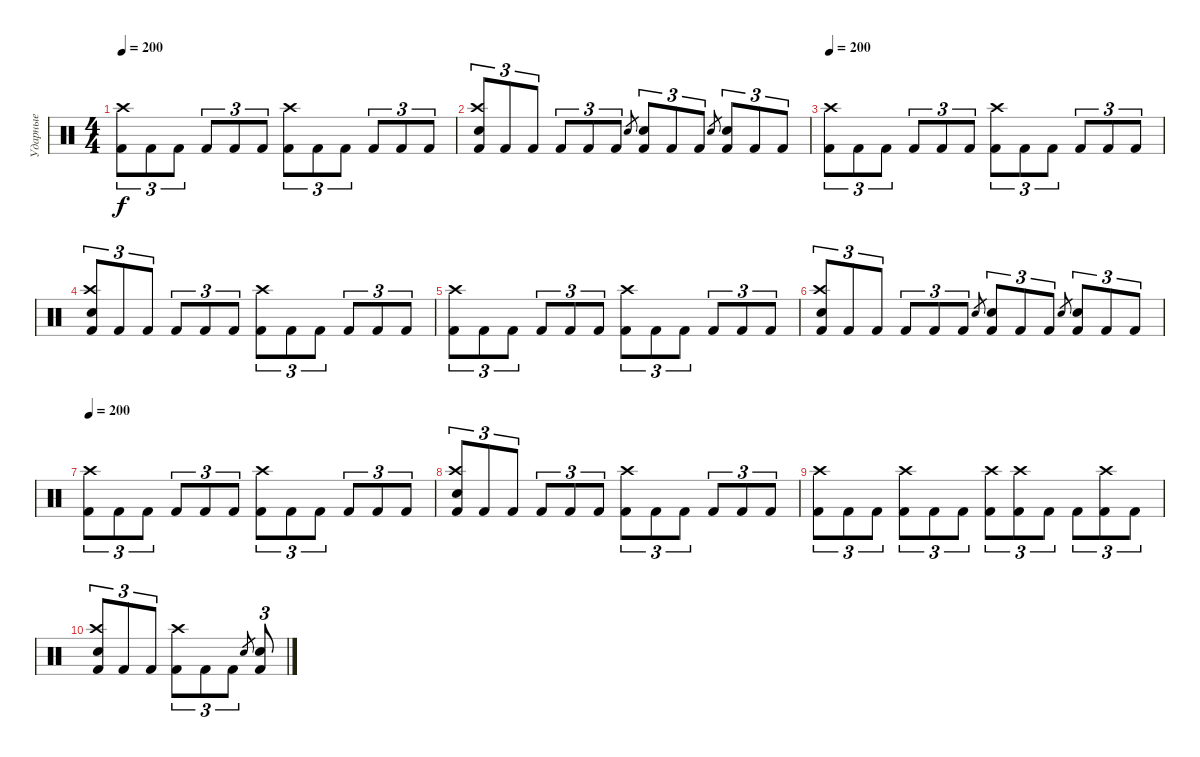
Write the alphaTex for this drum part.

\track ("Ударные" "Ударные") {instrument percussion}
\staff {score}
\articulation defaults
\ts (4 4)
\tempo 200
\clef neutral
\ks c
("Kick (hit) 2" "Crash high (hit)").8{tu (3 2) dy f} "Kick (hit) 2".8{tu (3 2)} "Kick (hit) 2".8{tu (3 2)} "Kick (hit) 2".8{tu (3 2)} "Kick (hit) 2".8{tu (3 2)} "Kick (hit) 2".8{tu (3 2)} ("Kick (hit) 2" "Crash high (hit)").8{tu (3 2)} "Kick (hit) 2".8{tu (3 2)} "Kick (hit) 2".8{tu (3 2)} "Kick (hit) 2".8{tu (3 2)} "Kick (hit) 2".8{tu (3 2)} "Kick (hit) 2".8{tu (3 2)} |
("Kick (hit) 2" "Crash high (hit)" "Electric Snare (hit)").8{tu (3 2)} "Kick (hit) 2".8{tu (3 2)} "Kick (hit) 2".8{tu (3 2)} "Kick (hit) 2".8{tu (3 2)} "Kick (hit) 2".8{tu (3 2)} "Kick (hit) 2".8{tu (3 2)} "Electric Snare (hit)".8{gr} ("Kick (hit) 2" "Electric Snare (hit)").8{tu (3 2)} "Kick (hit) 2".8{tu (3 2)} "Kick (hit) 2".8{tu (3 2)} "Electric Snare (hit)".8{gr} ("Kick (hit) 2" "Electric Snare (hit)").8{tu (3 2)} "Kick (hit) 2".8{tu (3 2)} "Kick (hit) 2".8{tu (3 2)} |
\tempo 200
("Kick (hit) 2" "Crash high (hit)").8{tu (3 2)} "Kick (hit) 2".8{tu (3 2)} "Kick (hit) 2".8{tu (3 2)} "Kick (hit) 2".8{tu (3 2)} "Kick (hit) 2".8{tu (3 2)} "Kick (hit) 2".8{tu (3 2)} ("Kick (hit) 2" "Crash high (hit)").8{tu (3 2)} "Kick (hit) 2".8{tu (3 2)} "Kick (hit) 2".8{tu (3 2)} "Kick (hit) 2".8{tu (3 2)} "Kick (hit) 2".8{tu (3 2)} "Kick (hit) 2".8{tu (3 2)} |
("Kick (hit) 2" "Crash high (hit)" "Electric Snare (hit)").8{tu (3 2)} "Kick (hit) 2".8{tu (3 2)} "Kick (hit) 2".8{tu (3 2)} "Kick (hit) 2".8{tu (3 2)} "Kick (hit) 2".8{tu (3 2)} "Kick (hit) 2".8{tu (3 2)} ("Kick (hit) 2" "Crash high (hit)").8{tu (3 2)} "Kick (hit) 2".8{tu (3 2)} "Kick (hit) 2".8{tu (3 2)} "Kick (hit) 2".8{tu (3 2)} "Kick (hit) 2".8{tu (3 2)} "Kick (hit) 2".8{tu (3 2)} |
("Kick (hit) 2" "Crash high (hit)").8{tu (3 2)} "Kick (hit) 2".8{tu (3 2)} "Kick (hit) 2".8{tu (3 2)} "Kick (hit) 2".8{tu (3 2)} "Kick (hit) 2".8{tu (3 2)} "Kick (hit) 2".8{tu (3 2)} ("Kick (hit) 2" "Crash high (hit)").8{tu (3 2)} "Kick (hit) 2".8{tu (3 2)} "Kick (hit) 2".8{tu (3 2)} "Kick (hit) 2".8{tu (3 2)} "Kick (hit) 2".8{tu (3 2)} "Kick (hit) 2".8{tu (3 2)} |
("Kick (hit) 2" "Crash high (hit)" "Electric Snare (hit)").8{tu (3 2)} "Kick (hit) 2".8{tu (3 2)} "Kick (hit) 2".8{tu (3 2)} "Kick (hit) 2".8{tu (3 2)} "Kick (hit) 2".8{tu (3 2)} "Kick (hit) 2".8{tu (3 2)} "Electric Snare (hit)".8{gr} ("Kick (hit) 2" "Electric Snare (hit)").8{tu (3 2)} "Kick (hit) 2".8{tu (3 2)} "Kick (hit) 2".8{tu (3 2)} "Electric Snare (hit)".8{gr} ("Kick (hit) 2" "Electric Snare (hit)").8{tu (3 2)} "Kick (hit) 2".8{tu (3 2)} "Kick (hit) 2".8{tu (3 2)} |
\tempo 200
("Kick (hit) 2" "Crash high (hit)").8{tu (3 2)} "Kick (hit) 2".8{tu (3 2)} "Kick (hit) 2".8{tu (3 2)} "Kick (hit) 2".8{tu (3 2)} "Kick (hit) 2".8{tu (3 2)} "Kick (hit) 2".8{tu (3 2)} ("Kick (hit) 2" "Crash high (hit)").8{tu (3 2)} "Kick (hit) 2".8{tu (3 2)} "Kick (hit) 2".8{tu (3 2)} "Kick (hit) 2".8{tu (3 2)} "Kick (hit) 2".8{tu (3 2)} "Kick (hit) 2".8{tu (3 2)} |
("Kick (hit) 2" "Crash high (hit)" "Electric Snare (hit)").8{tu (3 2)} "Kick (hit) 2".8{tu (3 2)} "Kick (hit) 2".8{tu (3 2)} "Kick (hit) 2".8{tu (3 2)} "Kick (hit) 2".8{tu (3 2)} "Kick (hit) 2".8{tu (3 2)} ("Kick (hit) 2" "Crash high (hit)").8{tu (3 2)} "Kick (hit) 2".8{tu (3 2)} "Kick (hit) 2".8{tu (3 2)} "Kick (hit) 2".8{tu (3 2)} "Kick (hit) 2".8{tu (3 2)} "Kick (hit) 2".8{tu (3 2)} |
("Kick (hit) 2" "Crash high (hit)").8{tu (3 2)} "Kick (hit) 2".8{tu (3 2)} "Kick (hit) 2".8{tu (3 2)} ("Kick (hit) 2" "Crash high (hit)").8{tu (3 2)} "Kick (hit) 2".8{tu (3 2)} "Kick (hit) 2".8{tu (3 2)} ("Kick (hit) 2" "Crash high (hit)").8{tu (3 2)} ("Kick (hit) 2" "Crash high (hit)").8{tu (3 2)} "Kick (hit) 2".8{tu (3 2)} "Kick (hit) 2".8{tu (3 2)} ("Kick (hit) 2" "Crash high (hit)").8{tu (3 2)} "Kick (hit) 2".8{tu (3 2)} |
("Kick (hit) 2" "Crash high (hit)" "Electric Snare (hit)").8{tu (3 2)} "Kick (hit) 2".8{tu (3 2)} "Kick (hit) 2".8{tu (3 2)} ("Kick (hit) 2" "Crash high (hit)").8{tu (3 2)} "Kick (hit) 2".8{tu (3 2)} "Kick (hit) 2".8{tu (3 2)} "Electric Snare (hit)".8{gr} ("Kick (hit) 2" "Electric Snare (hit)").8{tu (3 2)}
